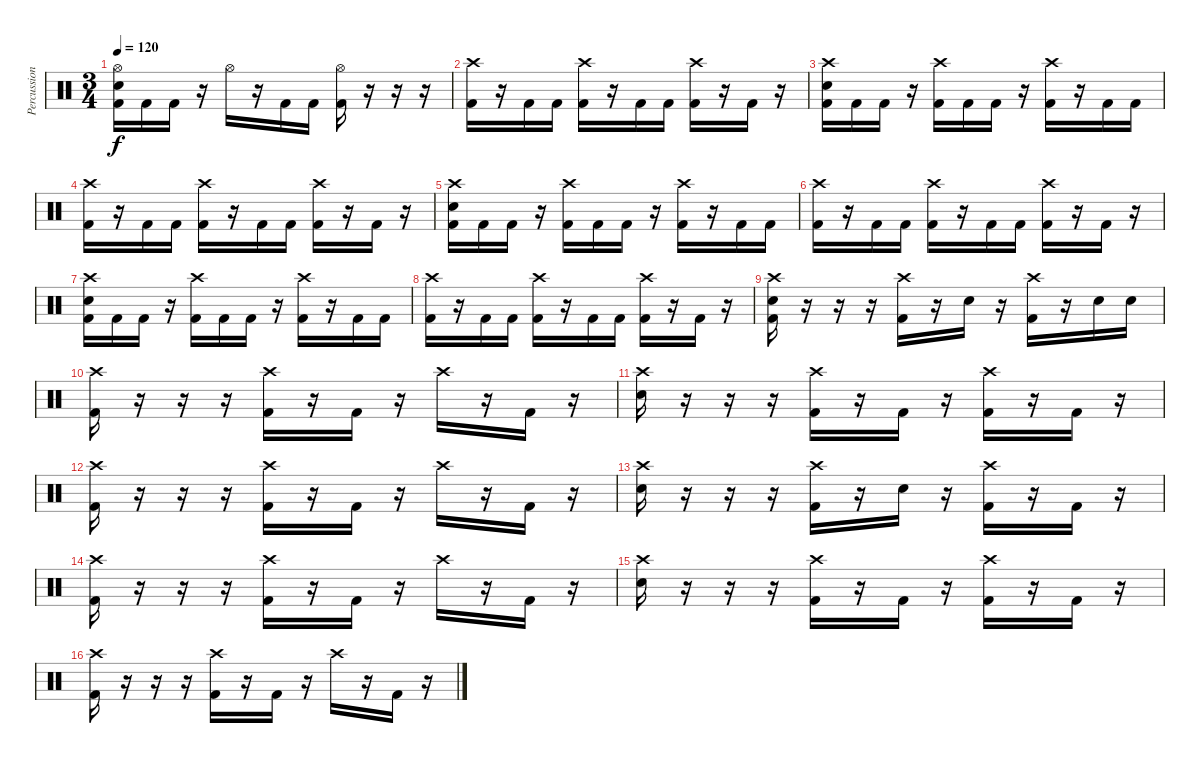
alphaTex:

\track ("Percussion" "Percussion") {instrument percussion}
\staff {score}
\articulation defaults
\ts (3 4)
\tempo 120
\clef neutral
\ks c
("Kick (hit) 2" "Electric Snare (hit)" "Hi-Hat (open)").16{dy f} "Kick (hit) 2".16 "Kick (hit) 2".16 r.16 "Hi-Hat (open)".16 r.16 "Kick (hit) 2".16 "Kick (hit) 2".16 ("Kick (hit) 2" "Hi-Hat (open)").16 r.16 r.16 r.16 |
("Kick (hit) 2" "Crash high (hit)").16 r.16 "Kick (hit) 2".16 "Kick (hit) 2".16 ("Kick (hit) 2" "Crash high (hit)").16 r.16 "Kick (hit) 2".16 "Kick (hit) 2".16 ("Kick (hit) 2" "Crash high (hit)").16 r.16 "Kick (hit) 2".16 r.16 |
("Kick (hit) 2" "Electric Snare (hit)" "Crash high (hit)").16 "Kick (hit) 2".16 "Kick (hit) 2".16 r.16 ("Kick (hit) 2" "Crash high (hit)").16 "Kick (hit) 2".16 "Kick (hit) 2".16 r.16 ("Kick (hit) 2" "Crash high (hit)").16 r.16 "Kick (hit) 2".16 "Kick (hit) 2".16 |
("Kick (hit) 2" "Crash high (hit)").16 r.16 "Kick (hit) 2".16 "Kick (hit) 2".16 ("Kick (hit) 2" "Crash high (hit)").16 r.16 "Kick (hit) 2".16 "Kick (hit) 2".16 ("Kick (hit) 2" "Crash high (hit)").16 r.16 "Kick (hit) 2".16 r.16 |
("Kick (hit) 2" "Electric Snare (hit)" "Crash high (hit)").16 "Kick (hit) 2".16 "Kick (hit) 2".16 r.16 ("Kick (hit) 2" "Crash high (hit)").16 "Kick (hit) 2".16 "Kick (hit) 2".16 r.16 ("Kick (hit) 2" "Crash high (hit)").16 r.16 "Kick (hit) 2".16 "Kick (hit) 2".16 |
("Kick (hit) 2" "Crash high (hit)").16 r.16 "Kick (hit) 2".16 "Kick (hit) 2".16 ("Kick (hit) 2" "Crash high (hit)").16 r.16 "Kick (hit) 2".16 "Kick (hit) 2".16 ("Kick (hit) 2" "Crash high (hit)").16 r.16 "Kick (hit) 2".16 r.16 |
("Kick (hit) 2" "Electric Snare (hit)" "Crash high (hit)").16 "Kick (hit) 2".16 "Kick (hit) 2".16 r.16 ("Kick (hit) 2" "Crash high (hit)").16 "Kick (hit) 2".16 "Kick (hit) 2".16 r.16 ("Kick (hit) 2" "Crash high (hit)").16 r.16 "Kick (hit) 2".16 "Kick (hit) 2".16 |
("Kick (hit) 2" "Crash high (hit)").16 r.16 "Kick (hit) 2".16 "Kick (hit) 2".16 ("Kick (hit) 2" "Crash high (hit)").16 r.16 "Kick (hit) 2".16 "Kick (hit) 2".16 ("Kick (hit) 2" "Crash high (hit)").16 r.16 "Kick (hit) 2".16 r.16 |
("Kick (hit) 2" "Electric Snare (hit)" "Crash high (hit)").16 r.16 r.16 r.16 ("Kick (hit) 2" "Crash high (hit)").16 r.16 "Electric Snare (hit)".16 r.16 ("Kick (hit) 2" "Crash high (hit)").16 r.16 "Electric Snare (hit)".16 "Electric Snare (hit)".16 |
("Kick (hit) 2" "Crash high (hit)").16 r.16 r.16 r.16 ("Kick (hit) 2" "Crash high (hit)").16 r.16 "Kick (hit) 2".16 r.16 "Crash high (hit)".16 r.16 "Kick (hit) 2".16 r.16 |
("Electric Snare (hit)" "Crash high (hit)").16 r.16 r.16 r.16 ("Kick (hit) 2" "Crash high (hit)").16 r.16 "Kick (hit) 2".16 r.16 ("Kick (hit) 2" "Crash high (hit)").16 r.16 "Kick (hit) 2".16 r.16 |
("Kick (hit) 2" "Crash high (hit)").16 r.16 r.16 r.16 ("Kick (hit) 2" "Crash high (hit)").16 r.16 "Kick (hit) 2".16 r.16 "Crash high (hit)".16 r.16 "Kick (hit) 2".16 r.16 |
("Electric Snare (hit)" "Crash high (hit)").16 r.16 r.16 r.16 ("Kick (hit) 2" "Crash high (hit)").16 r.16 "Electric Snare (hit)".16 r.16 ("Kick (hit) 2" "Crash high (hit)").16 r.16 "Kick (hit) 2".16 r.16 |
("Kick (hit) 2" "Crash high (hit)").16 r.16 r.16 r.16 ("Kick (hit) 2" "Crash high (hit)").16 r.16 "Kick (hit) 2".16 r.16 "Crash high (hit)".16 r.16 "Kick (hit) 2".16 r.16 |
("Electric Snare (hit)" "Crash high (hit)").16 r.16 r.16 r.16 ("Kick (hit) 2" "Crash high (hit)").16 r.16 "Kick (hit) 2".16 r.16 ("Kick (hit) 2" "Crash high (hit)").16 r.16 "Kick (hit) 2".16 r.16 |
("Kick (hit) 2" "Crash high (hit)").16 r.16 r.16 r.16 ("Kick (hit) 2" "Crash high (hit)").16 r.16 "Kick (hit) 2".16 r.16 "Crash high (hit)".16 r.16 "Kick (hit) 2".16 r.16
